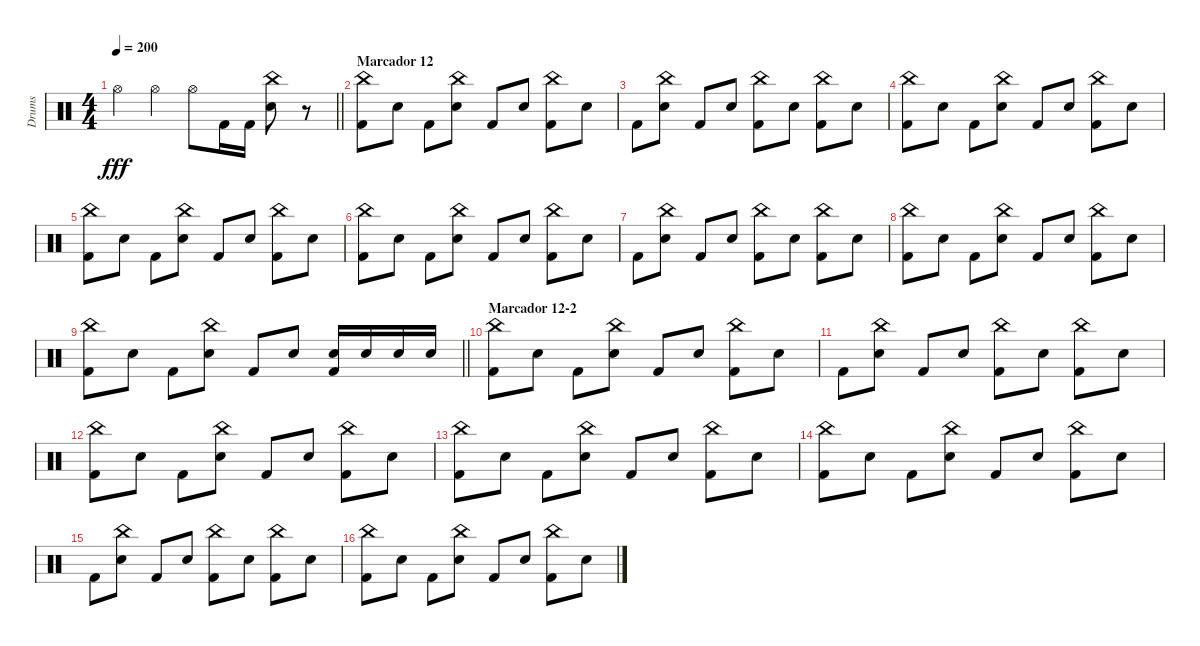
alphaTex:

\track ("Drums" "Drums") {instrument percussion}
\staff {score}
\articulation defaults
\ts (4 4)
\tempo 200
\clef neutral
\barLineRight lightlight
\ks c "Hi-Hat (open)".4{dy fff} "Hi-Hat (open)".4 "Hi-Hat (open)".8 "Kick (hit) 2".16 "Kick (hit) 2".16
("China (hit)" "Electric Snare (hit)").8 r.8 |
\section ("" "Marcador 12")
("China (hit)" "Kick (hit) 2").8 "Electric Snare (hit)".8 "Kick (hit) 2".8 ("China (hit)" "Electric Snare (hit)").8 "Kick (hit) 2".8 "Electric Snare (hit)".8 ("China (hit)" "Kick (hit) 2").8 "Electric Snare (hit)".8 |
"Kick (hit) 2".8 ("China (hit)" "Electric Snare (hit)").8 "Kick (hit) 2".8 "Electric Snare (hit)".8 ("China (hit)" "Kick (hit) 2").8 "Electric Snare (hit)".8 ("China (hit)" "Kick (hit) 2").8 "Electric Snare (hit)".8 |
("China (hit)" "Kick (hit) 2").8 "Electric Snare (hit)".8 "Kick (hit) 2".8 ("China (hit)" "Electric Snare (hit)").8 "Kick (hit) 2".8 "Electric Snare (hit)".8 ("China (hit)" "Kick (hit) 2").8 "Electric Snare (hit)".8 |
("China (hit)" "Kick (hit) 2").8 "Electric Snare (hit)".8 "Kick (hit) 2".8 ("China (hit)" "Electric Snare (hit)").8 "Kick (hit) 2".8 "Electric Snare (hit)".8 ("China (hit)" "Kick (hit) 2").8 "Electric Snare (hit)".8 |
("China (hit)" "Kick (hit) 2").8 "Electric Snare (hit)".8 "Kick (hit) 2".8 ("China (hit)" "Electric Snare (hit)").8 "Kick (hit) 2".8 "Electric Snare (hit)".8 ("China (hit)" "Kick (hit) 2").8 "Electric Snare (hit)".8 |
"Kick (hit) 2".8 ("China (hit)" "Electric Snare (hit)").8 "Kick (hit) 2".8 "Electric Snare (hit)".8 ("China (hit)" "Kick (hit) 2").8 "Electric Snare (hit)".8 ("China (hit)" "Kick (hit) 2").8 "Electric Snare (hit)".8 |
("China (hit)" "Kick (hit) 2").8 "Electric Snare (hit)".8 "Kick (hit) 2".8 ("China (hit)" "Electric Snare (hit)").8 "Kick (hit) 2".8 "Electric Snare (hit)".8 ("China (hit)" "Kick (hit) 2").8 "Electric Snare (hit)".8 |
\barLineRight lightlight
("China (hit)" "Kick (hit) 2").8 "Electric Snare (hit)".8 "Kick (hit) 2".8 ("China (hit)" "Electric Snare (hit)").8 "Kick (hit) 2".8 "Electric Snare (hit)".8 ("Electric Snare (hit)" "Kick (hit) 2").16 "Electric Snare (hit)".16 "Electric Snare (hit)".16 "Electric Snare (hit)".16 |
\section ("" "Marcador 12-2")
("China (hit)" "Kick (hit) 2").8 "Electric Snare (hit)".8 "Kick (hit) 2".8 ("China (hit)" "Electric Snare (hit)").8 "Kick (hit) 2".8 "Electric Snare (hit)".8 ("China (hit)" "Kick (hit) 2").8 "Electric Snare (hit)".8 |
"Kick (hit) 2".8 ("China (hit)" "Electric Snare (hit)").8 "Kick (hit) 2".8 "Electric Snare (hit)".8 ("China (hit)" "Kick (hit) 2").8 "Electric Snare (hit)".8 ("China (hit)" "Kick (hit) 2").8 "Electric Snare (hit)".8 |
("China (hit)" "Kick (hit) 2").8 "Electric Snare (hit)".8 "Kick (hit) 2".8 ("China (hit)" "Electric Snare (hit)").8 "Kick (hit) 2".8 "Electric Snare (hit)".8 ("China (hit)" "Kick (hit) 2").8 "Electric Snare (hit)".8 |
("China (hit)" "Kick (hit) 2").8 "Electric Snare (hit)".8 "Kick (hit) 2".8 ("China (hit)" "Electric Snare (hit)").8 "Kick (hit) 2".8 "Electric Snare (hit)".8 ("China (hit)" "Kick (hit) 2").8 "Electric Snare (hit)".8 |
("China (hit)" "Kick (hit) 2").8 "Electric Snare (hit)".8 "Kick (hit) 2".8 ("China (hit)" "Electric Snare (hit)").8 "Kick (hit) 2".8 "Electric Snare (hit)".8 ("China (hit)" "Kick (hit) 2").8 "Electric Snare (hit)".8 |
"Kick (hit) 2".8 ("China (hit)" "Electric Snare (hit)").8 "Kick (hit) 2".8 "Electric Snare (hit)".8 ("China (hit)" "Kick (hit) 2").8 "Electric Snare (hit)".8 ("China (hit)" "Kick (hit) 2").8 "Electric Snare (hit)".8 |
("China (hit)" "Kick (hit) 2").8 "Electric Snare (hit)".8 "Kick (hit) 2".8 ("China (hit)" "Electric Snare (hit)").8 "Kick (hit) 2".8 "Electric Snare (hit)".8 ("China (hit)" "Kick (hit) 2").8 "Electric Snare (hit)".8
